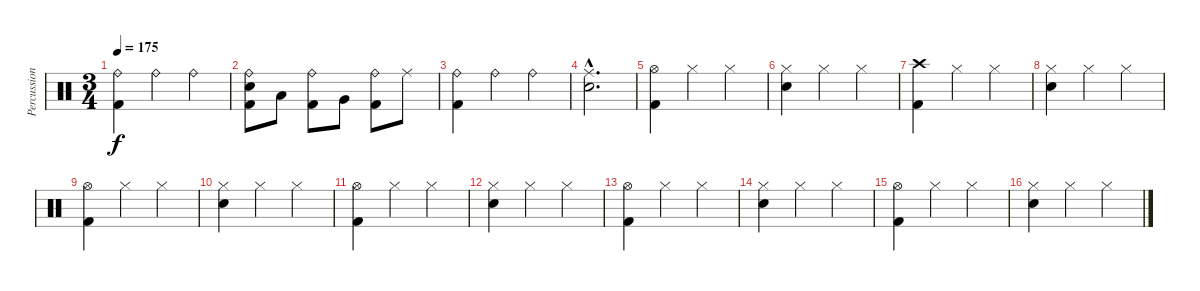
\track ("Percussion" "Percussion") {instrument percussion}
\staff {score}
\articulation defaults
\ts (3 4)
\tempo 175
\clef neutral
\ks c
("Ride (bell)" "Kick (hit) 2").4{dy f} "Ride (bell)".4 "Ride (bell)".4 |
("Ride (bell)" "Electric Snare (hit)" "Kick (hit) 2").8 "Low Floor Tom (hit)".8 ("Ride (bell)" "Kick (hit) 2").8 "Very Low Tom (hit)".8 ("Ride (bell)" "Kick (hit) 2").8 "Ride (middle)".8 |
("Ride (bell)" "Kick (hit) 2").4 "Ride (bell)".4 "Ride (bell)".4 |
("Ride (middle)"{hac} "Electric Snare (hit)"{hac}).2{d} |
("Hi-Hat (open)" "Kick (hit) 2").4 "Hi-Hat (closed)".4 "Hi-Hat (closed)".4 |
("Electric Snare (hit)" "Hi-Hat (closed)").4 "Hi-Hat (closed)".4 "Hi-Hat (closed)".4 |
("Crash high (hit)" "Kick (hit) 2").4 "Hi-Hat (closed)".4 "Hi-Hat (closed)".4 |
("Electric Snare (hit)" "Hi-Hat (closed)").4 "Hi-Hat (closed)".4 "Hi-Hat (closed)".4 |
("Hi-Hat (open)" "Kick (hit) 2").4 "Hi-Hat (closed)".4 "Hi-Hat (closed)".4 |
("Electric Snare (hit)" "Hi-Hat (closed)").4 "Hi-Hat (closed)".4 "Hi-Hat (closed)".4 |
("Hi-Hat (open)" "Kick (hit) 2").4 "Hi-Hat (closed)".4 "Hi-Hat (closed)".4 |
("Electric Snare (hit)" "Hi-Hat (closed)").4 "Hi-Hat (closed)".4 "Hi-Hat (closed)".4 |
("Hi-Hat (open)" "Kick (hit) 2").4 "Hi-Hat (closed)".4 "Hi-Hat (closed)".4 |
("Electric Snare (hit)" "Hi-Hat (closed)").4 "Hi-Hat (closed)".4 "Hi-Hat (closed)".4 |
("Hi-Hat (open)" "Kick (hit) 2").4 "Hi-Hat (closed)".4 "Hi-Hat (closed)".4 |
("Electric Snare (hit)" "Hi-Hat (closed)").4 "Hi-Hat (closed)".4 "Hi-Hat (closed)".4
